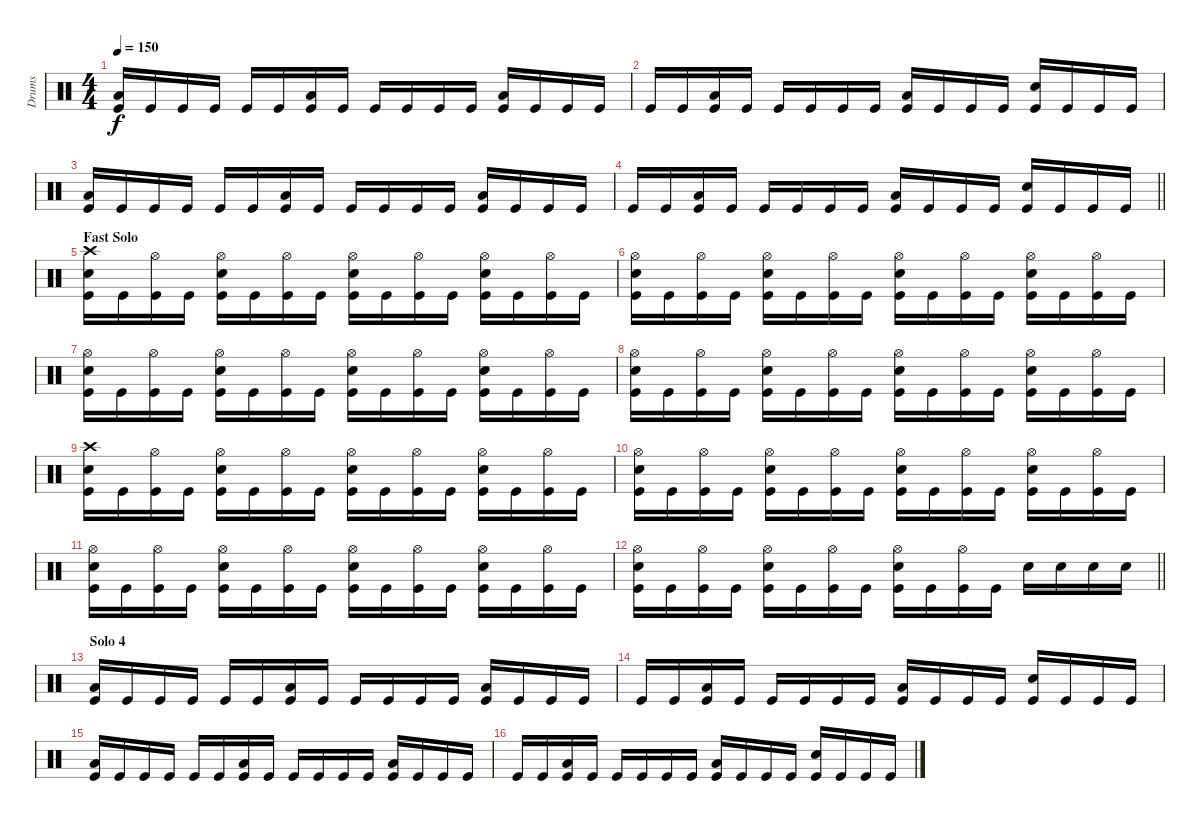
\track ("Drums" "Drums") {instrument percussion}
\staff {score}
\articulation defaults
\ts (4 4)
\tempo 150
\clef neutral
\ks c
("Low Floor Tom (hit)" "Kick (hit)").16{dy f} "Kick (hit)".16 "Kick (hit)".16 "Kick (hit)".16 "Kick (hit)".16 "Kick (hit)".16 ("Low Floor Tom (hit)" "Kick (hit)").16 "Kick (hit)".16 "Kick (hit)".16 "Kick (hit)".16 "Kick (hit)".16 "Kick (hit)".16 ("Low Floor Tom (hit)" "Kick (hit)").16 "Kick (hit)".16 "Kick (hit)".16 "Kick (hit)".16 |
"Kick (hit)".16 "Kick (hit)".16 ("Low Floor Tom (hit)" "Kick (hit)").16 "Kick (hit)".16 "Kick (hit)".16 "Kick (hit)".16 "Kick (hit)".16 "Kick (hit)".16 ("Low Floor Tom (hit)" "Kick (hit)").16 "Kick (hit)".16 "Kick (hit)".16 "Kick (hit)".16 ("Snare (hit) 2" "Kick (hit)").16 "Kick (hit)".16 "Kick (hit)".16 "Kick (hit)".16 |
("Low Floor Tom (hit)" "Kick (hit)").16 "Kick (hit)".16 "Kick (hit)".16 "Kick (hit)".16 "Kick (hit)".16 "Kick (hit)".16 ("Low Floor Tom (hit)" "Kick (hit)").16 "Kick (hit)".16 "Kick (hit)".16 "Kick (hit)".16 "Kick (hit)".16 "Kick (hit)".16 ("Low Floor Tom (hit)" "Kick (hit)").16 "Kick (hit)".16 "Kick (hit)".16 "Kick (hit)".16 |
\barLineRight lightlight "Kick (hit)".16 "Kick (hit)".16
("Low Floor Tom (hit)" "Kick (hit)").16 "Kick (hit)".16 "Kick (hit)".16 "Kick (hit)".16 "Kick (hit)".16 "Kick (hit)".16 ("Low Floor Tom (hit)" "Kick (hit)").16 "Kick (hit)".16 "Kick (hit)".16 "Kick (hit)".16 ("Snare (hit) 2" "Kick (hit)").16 "Kick (hit)".16 "Kick (hit)".16 "Kick (hit)".16 |
\section ("" "Fast Solo")
("Crash high (hit)" "Snare (hit) 2" "Kick (hit)").16 "Kick (hit)".16 ("Hi-Hat (open)" "Kick (hit)").16 "Kick (hit)".16 ("Hi-Hat (open)" "Snare (hit) 2" "Kick (hit)").16 "Kick (hit)".16 ("Hi-Hat (open)" "Kick (hit)").16 "Kick (hit)".16 ("Hi-Hat (open)" "Snare (hit) 2" "Kick (hit)").16 "Kick (hit)".16 ("Hi-Hat (open)" "Kick (hit)").16 "Kick (hit)".16 ("Hi-Hat (open)" "Snare (hit) 2" "Kick (hit)").16 "Kick (hit)".16 ("Hi-Hat (open)" "Kick (hit)").16 "Kick (hit)".16 |
("Hi-Hat (open)" "Snare (hit) 2" "Kick (hit)").16 "Kick (hit)".16 ("Hi-Hat (open)" "Kick (hit)").16 "Kick (hit)".16 ("Hi-Hat (open)" "Snare (hit) 2" "Kick (hit)").16 "Kick (hit)".16 ("Hi-Hat (open)" "Kick (hit)").16 "Kick (hit)".16 ("Hi-Hat (open)" "Snare (hit) 2" "Kick (hit)").16 "Kick (hit)".16 ("Hi-Hat (open)" "Kick (hit)").16 "Kick (hit)".16 ("Hi-Hat (open)" "Snare (hit) 2" "Kick (hit)").16 "Kick (hit)".16 ("Hi-Hat (open)" "Kick (hit)").16 "Kick (hit)".16 |
("Hi-Hat (open)" "Snare (hit) 2" "Kick (hit)").16 "Kick (hit)".16 ("Hi-Hat (open)" "Kick (hit)").16 "Kick (hit)".16 ("Hi-Hat (open)" "Snare (hit) 2" "Kick (hit)").16 "Kick (hit)".16 ("Hi-Hat (open)" "Kick (hit)").16 "Kick (hit)".16 ("Hi-Hat (open)" "Snare (hit) 2" "Kick (hit)").16 "Kick (hit)".16 ("Hi-Hat (open)" "Kick (hit)").16 "Kick (hit)".16 ("Hi-Hat (open)" "Snare (hit) 2" "Kick (hit)").16 "Kick (hit)".16 ("Hi-Hat (open)" "Kick (hit)").16 "Kick (hit)".16 |
("Hi-Hat (open)" "Snare (hit) 2" "Kick (hit)").16 "Kick (hit)".16 ("Hi-Hat (open)" "Kick (hit)").16 "Kick (hit)".16 ("Hi-Hat (open)" "Snare (hit) 2" "Kick (hit)").16 "Kick (hit)".16 ("Hi-Hat (open)" "Kick (hit)").16 "Kick (hit)".16 ("Hi-Hat (open)" "Snare (hit) 2" "Kick (hit)").16 "Kick (hit)".16 ("Hi-Hat (open)" "Kick (hit)").16 "Kick (hit)".16 ("Hi-Hat (open)" "Snare (hit) 2" "Kick (hit)").16 "Kick (hit)".16 ("Hi-Hat (open)" "Kick (hit)").16 "Kick (hit)".16 |
("Crash high (hit)" "Snare (hit) 2" "Kick (hit)").16 "Kick (hit)".16 ("Hi-Hat (open)" "Kick (hit)").16 "Kick (hit)".16 ("Hi-Hat (open)" "Snare (hit) 2" "Kick (hit)").16 "Kick (hit)".16 ("Hi-Hat (open)" "Kick (hit)").16 "Kick (hit)".16 ("Hi-Hat (open)" "Snare (hit) 2" "Kick (hit)").16 "Kick (hit)".16 ("Hi-Hat (open)" "Kick (hit)").16 "Kick (hit)".16 ("Hi-Hat (open)" "Snare (hit) 2" "Kick (hit)").16 "Kick (hit)".16 ("Hi-Hat (open)" "Kick (hit)").16 "Kick (hit)".16 |
("Hi-Hat (open)" "Snare (hit) 2" "Kick (hit)").16 "Kick (hit)".16 ("Hi-Hat (open)" "Kick (hit)").16 "Kick (hit)".16 ("Hi-Hat (open)" "Snare (hit) 2" "Kick (hit)").16 "Kick (hit)".16 ("Hi-Hat (open)" "Kick (hit)").16 "Kick (hit)".16 ("Hi-Hat (open)" "Snare (hit) 2" "Kick (hit)").16 "Kick (hit)".16 ("Hi-Hat (open)" "Kick (hit)").16 "Kick (hit)".16 ("Hi-Hat (open)" "Snare (hit) 2" "Kick (hit)").16 "Kick (hit)".16 ("Hi-Hat (open)" "Kick (hit)").16 "Kick (hit)".16 |
("Hi-Hat (open)" "Snare (hit) 2" "Kick (hit)").16 "Kick (hit)".16 ("Hi-Hat (open)" "Kick (hit)").16 "Kick (hit)".16 ("Hi-Hat (open)" "Snare (hit) 2" "Kick (hit)").16 "Kick (hit)".16 ("Hi-Hat (open)" "Kick (hit)").16 "Kick (hit)".16 ("Hi-Hat (open)" "Snare (hit) 2" "Kick (hit)").16 "Kick (hit)".16 ("Hi-Hat (open)" "Kick (hit)").16 "Kick (hit)".16 ("Hi-Hat (open)" "Snare (hit) 2" "Kick (hit)").16 "Kick (hit)".16 ("Hi-Hat (open)" "Kick (hit)").16 "Kick (hit)".16 |
\barLineRight lightlight
("Hi-Hat (open)" "Snare (hit) 2" "Kick (hit)").16 "Kick (hit)".16 ("Hi-Hat (open)" "Kick (hit)").16 "Kick (hit)".16 ("Hi-Hat (open)" "Snare (hit) 2" "Kick (hit)").16 "Kick (hit)".16 ("Hi-Hat (open)" "Kick (hit)").16 "Kick (hit)".16 ("Hi-Hat (open)" "Snare (hit) 2" "Kick (hit)").16 "Kick (hit)".16 ("Hi-Hat (open)" "Kick (hit)").16 "Kick (hit)".16 "Snare (hit) 2".16 "Snare (hit) 2".16 "Snare (hit) 2".16 "Snare (hit) 2".16 |
\section ("" "Solo 4")
("Low Floor Tom (hit)" "Kick (hit)").16 "Kick (hit)".16 "Kick (hit)".16 "Kick (hit)".16 "Kick (hit)".16 "Kick (hit)".16 ("Low Floor Tom (hit)" "Kick (hit)").16 "Kick (hit)".16 "Kick (hit)".16 "Kick (hit)".16 "Kick (hit)".16 "Kick (hit)".16 ("Low Floor Tom (hit)" "Kick (hit)").16 "Kick (hit)".16 "Kick (hit)".16 "Kick (hit)".16 |
"Kick (hit)".16 "Kick (hit)".16 ("Low Floor Tom (hit)" "Kick (hit)").16 "Kick (hit)".16 "Kick (hit)".16 "Kick (hit)".16 "Kick (hit)".16 "Kick (hit)".16 ("Low Floor Tom (hit)" "Kick (hit)").16 "Kick (hit)".16 "Kick (hit)".16 "Kick (hit)".16 ("Snare (hit) 2" "Kick (hit)").16 "Kick (hit)".16 "Kick (hit)".16 "Kick (hit)".16 |
("Low Floor Tom (hit)" "Kick (hit)").16 "Kick (hit)".16 "Kick (hit)".16 "Kick (hit)".16 "Kick (hit)".16 "Kick (hit)".16 ("Low Floor Tom (hit)" "Kick (hit)").16 "Kick (hit)".16 "Kick (hit)".16 "Kick (hit)".16 "Kick (hit)".16 "Kick (hit)".16 ("Low Floor Tom (hit)" "Kick (hit)").16 "Kick (hit)".16 "Kick (hit)".16 "Kick (hit)".16 |
"Kick (hit)".16 "Kick (hit)".16 ("Low Floor Tom (hit)" "Kick (hit)").16 "Kick (hit)".16 "Kick (hit)".16 "Kick (hit)".16 "Kick (hit)".16 "Kick (hit)".16 ("Low Floor Tom (hit)" "Kick (hit)").16 "Kick (hit)".16 "Kick (hit)".16 "Kick (hit)".16 ("Snare (hit) 2" "Kick (hit)").16 "Kick (hit)".16 "Kick (hit)".16 "Kick (hit)".16
